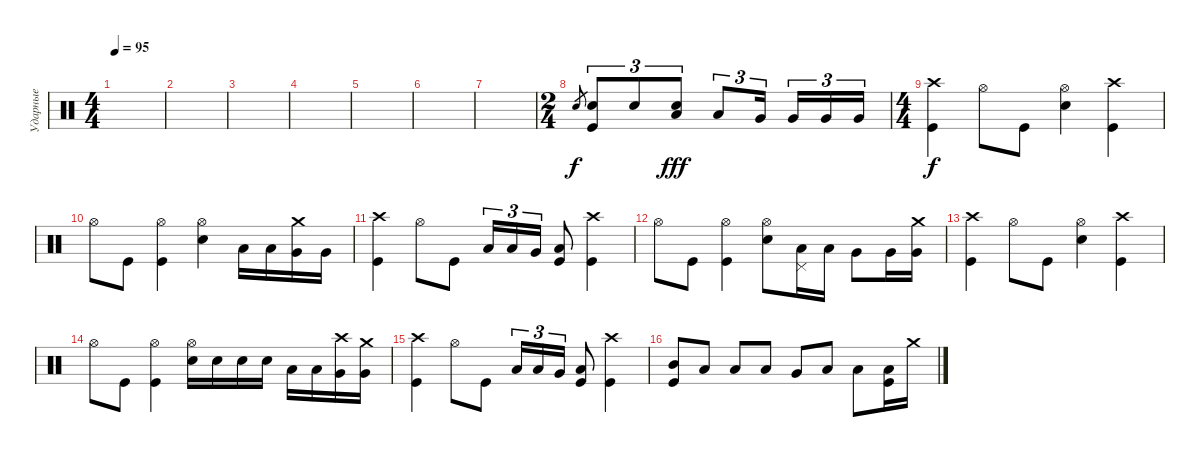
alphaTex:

\track ("Ударные" "Ударные") {instrument percussion}
\staff {score}
\articulation defaults
\ts (4 4)
\tempo 95
\clef neutral
\ks c
|
|
|
|
|
|
|
\ts (2 4)
"Snare (hit) 2".8{gr} ("Snare (hit) 2" "Kick (hit)").8{tu (3 2)} "Snare (hit) 2".8{tu (3 2) dy f} ("Low Tom (hit)" "Snare (hit) 2").8{tu (3 2) dy fff} "Low Tom (hit)".8{tu (3 2)} "Very Low Tom (hit)".16{tu (3 2) beam splitsecondary} "Very Low Tom (hit)".16{tu (3 2)} "Very Low Tom (hit)".16{tu (3 2)} "Very Low Tom (hit)".16{tu (3 2)} |
\ts (4 4)
("Crash high (hit)" "Kick (hit)").4{dy f} "Hi-Hat (open)".8 "Kick (hit)".8 ("Hi-Hat (open)" "Snare (hit) 2").4 ("Crash high (hit)" "Kick (hit)").4 |
"Hi-Hat (open)".8 "Kick (hit)".8 ("Hi-Hat (open)" "Kick (hit)").4 ("Hi-Hat (open)" "Snare (hit) 2").4 "Low Tom (hit)".16 "Low Tom (hit)".16 ("Crash medium (hit)" "Very Low Tom (hit)").16 "Very Low Tom (hit)".16 |
("Crash high (hit)" "Kick (hit)").4 "Hi-Hat (open)".8 "Kick (hit)".8 "Low Tom (hit)".16{tu (3 2)} "Low Tom (hit)".16{tu (3 2)} "Very Low Tom (hit)".16{tu (3 2)} ("Low Floor Tom (hit)" "Kick (hit)").8 ("Crash high (hit)" "Kick (hit)").4 |
"Hi-Hat (open)".8 "Kick (hit)".8 ("Hi-Hat (open)" "Kick (hit)").4 ("Hi-Hat (open)" "Snare (hit) 2").8 ("Pedal Hi-Hat (hit)" "Low Tom (hit)").16 "Low Tom (hit)".16 "Very Low Tom (hit)".8 "Very Low Tom (hit)".16 ("Crash medium (hit)" "Very Low Tom (hit)").16 |
("Crash high (hit)" "Kick (hit)").4 "Hi-Hat (open)".8 "Kick (hit)".8 ("Hi-Hat (open)" "Snare (hit) 2").4 ("Crash high (hit)" "Kick (hit)").4 |
"Hi-Hat (open)".8 "Kick (hit)".8 ("Hi-Hat (open)" "Kick (hit)").4 ("Hi-Hat (open)" "Snare (hit) 2").16 "Snare (hit) 2".16 "Snare (hit) 2".16 "Snare (hit) 2".16 "Low Tom (hit)".16 "Low Tom (hit)".16 ("Crash high (hit)" "Very Low Tom (hit)").16 ("Crash medium (hit)" "Very Low Tom (hit)").16 |
("Crash high (hit)" "Kick (hit)").4 "Hi-Hat (open)".8 "Kick (hit)".8 "Low Tom (hit)".16{tu (3 2)} "Low Tom (hit)".16{tu (3 2)} "Very Low Tom (hit)".16{tu (3 2)} ("Low Floor Tom (hit)" "Kick (hit)").8 ("Crash high (hit)" "Kick (hit)").4 |
("Mid Tom (hit)" "Kick (hit)").8 "Low Floor Tom (hit)".8 "Low Tom (hit)".8 "Low Floor Tom (hit)".8 "Very Low Tom (hit)".8 "Low Floor Tom (hit)".8 "Low Floor Tom (hit)".8 ("Low Floor Tom (hit)" "Kick (hit)").16 "Crash medium (hit)".16
